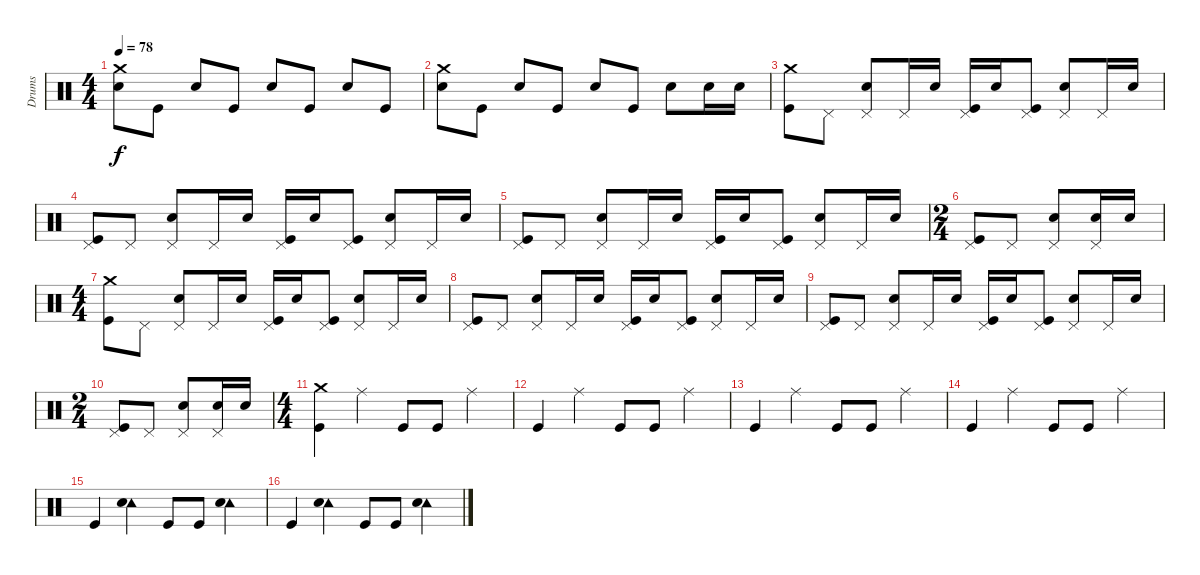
\track ("Drums" "Drums") {instrument percussion}
\staff {score}
\articulation defaults
\ts (4 4)
\tempo 78
\clef neutral
\ks c
("Crash medium (hit)" "Electric Snare (hit)").8{dy f} "Kick (hit)".8 "Electric Snare (hit)".8 "Kick (hit)".8 "Electric Snare (hit)".8 "Kick (hit)".8 "Electric Snare (hit)".8 "Kick (hit)".8 |
("Crash medium (hit)" "Electric Snare (hit)").8 "Kick (hit)".8 "Electric Snare (hit)".8 "Kick (hit)".8 "Electric Snare (hit)".8 "Kick (hit)".8 "Electric Snare (hit)".8 "Electric Snare (hit)".16 "Electric Snare (hit)".16 |
("Crash medium (hit)" "Kick (hit)").8 "Pedal Hi-Hat (hit)".8 ("Pedal Hi-Hat (hit)" "Electric Snare (hit)").8 "Pedal Hi-Hat (hit)".16 "Electric Snare (hit)".16 ("Pedal Hi-Hat (hit)" "Kick (hit)").16 "Electric Snare (hit)".16 ("Pedal Hi-Hat (hit)" "Kick (hit)").8 ("Pedal Hi-Hat (hit)" "Electric Snare (hit)").8 "Pedal Hi-Hat (hit)".16 "Electric Snare (hit)".16 |
("Pedal Hi-Hat (hit)" "Kick (hit)").8 "Pedal Hi-Hat (hit)".8 ("Pedal Hi-Hat (hit)" "Electric Snare (hit)").8 "Pedal Hi-Hat (hit)".16 "Electric Snare (hit)".16 ("Pedal Hi-Hat (hit)" "Kick (hit)").16 "Electric Snare (hit)".16 ("Pedal Hi-Hat (hit)" "Kick (hit)").8 ("Pedal Hi-Hat (hit)" "Electric Snare (hit)").8 "Pedal Hi-Hat (hit)".16 "Electric Snare (hit)".16 |
("Pedal Hi-Hat (hit)" "Kick (hit)").8 "Pedal Hi-Hat (hit)".8 ("Pedal Hi-Hat (hit)" "Electric Snare (hit)").8 "Pedal Hi-Hat (hit)".16 "Electric Snare (hit)".16 ("Pedal Hi-Hat (hit)" "Kick (hit)").16 "Electric Snare (hit)".16 ("Pedal Hi-Hat (hit)" "Kick (hit)").8 ("Pedal Hi-Hat (hit)" "Electric Snare (hit)").8 "Pedal Hi-Hat (hit)".16 "Electric Snare (hit)".16 |
\ts (2 4)
("Pedal Hi-Hat (hit)" "Kick (hit)").8 "Pedal Hi-Hat (hit)".8 ("Pedal Hi-Hat (hit)" "Electric Snare (hit)").8 ("Pedal Hi-Hat (hit)" "Electric Snare (hit)").16 "Electric Snare (hit)".16 |
\ts (4 4)
("Crash medium (hit)" "Kick (hit)").8 "Pedal Hi-Hat (hit)".8 ("Pedal Hi-Hat (hit)" "Electric Snare (hit)").8 "Pedal Hi-Hat (hit)".16 "Electric Snare (hit)".16 ("Pedal Hi-Hat (hit)" "Kick (hit)").16 "Electric Snare (hit)".16 ("Pedal Hi-Hat (hit)" "Kick (hit)").8 ("Pedal Hi-Hat (hit)" "Electric Snare (hit)").8 "Pedal Hi-Hat (hit)".16 "Electric Snare (hit)".16 |
("Pedal Hi-Hat (hit)" "Kick (hit)").8 "Pedal Hi-Hat (hit)".8 ("Pedal Hi-Hat (hit)" "Electric Snare (hit)").8 "Pedal Hi-Hat (hit)".16 "Electric Snare (hit)".16 ("Pedal Hi-Hat (hit)" "Kick (hit)").16 "Electric Snare (hit)".16 ("Pedal Hi-Hat (hit)" "Kick (hit)").8 ("Pedal Hi-Hat (hit)" "Electric Snare (hit)").8 "Pedal Hi-Hat (hit)".16 "Electric Snare (hit)".16 |
("Pedal Hi-Hat (hit)" "Kick (hit)").8 "Pedal Hi-Hat (hit)".8 ("Pedal Hi-Hat (hit)" "Electric Snare (hit)").8 "Pedal Hi-Hat (hit)".16 "Electric Snare (hit)".16 ("Pedal Hi-Hat (hit)" "Kick (hit)").16 "Electric Snare (hit)".16 ("Pedal Hi-Hat (hit)" "Kick (hit)").8 ("Pedal Hi-Hat (hit)" "Electric Snare (hit)").8 "Pedal Hi-Hat (hit)".16 "Electric Snare (hit)".16 |
\ts (2 4)
("Pedal Hi-Hat (hit)" "Kick (hit)").8 "Pedal Hi-Hat (hit)".8 ("Pedal Hi-Hat (hit)" "Electric Snare (hit)").8 ("Pedal Hi-Hat (hit)" "Electric Snare (hit)").16 "Electric Snare (hit)".16 |
\ts (4 4)
("Crash medium (hit)" "Kick (hit)").4 "Ride (middle)".4 "Kick (hit)".8 "Kick (hit)".8 "Ride (middle)".4 |
"Kick (hit)".4 "Ride (middle)".4 "Kick (hit)".8 "Kick (hit)".8 "Ride (middle)".4 |
"Kick (hit)".4 "Ride (middle)".4 "Kick (hit)".8 "Kick (hit)".8 "Ride (middle)".4 |
"Kick (hit)".4 "Ride (middle)".4 "Kick (hit)".8 "Kick (hit)".8 "Ride (middle)".4 |
"Kick (hit)".4 ("Tambourine (hit)" "Electric Snare (hit)").4 "Kick (hit)".8 "Kick (hit)".8 ("Tambourine (hit)" "Electric Snare (hit)").4 |
"Kick (hit)".4 ("Tambourine (hit)" "Electric Snare (hit)").4 "Kick (hit)".8 "Kick (hit)".8 ("Tambourine (hit)" "Electric Snare (hit)").4
